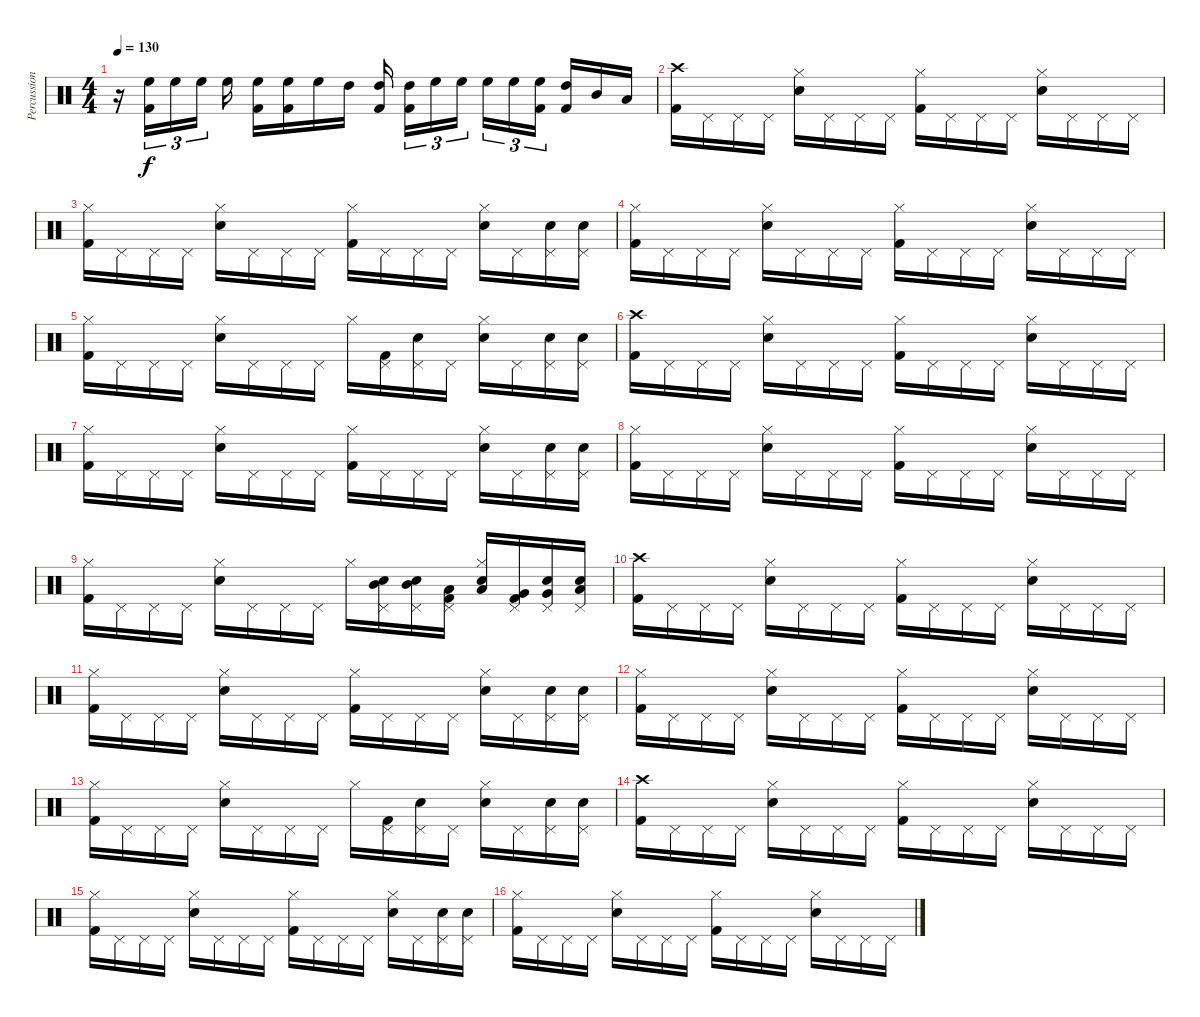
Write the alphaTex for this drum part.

\track ("Percussion" "Percussion") {instrument percussion}
\staff {score}
\articulation defaults
\ts (4 4)
\tempo 130
\clef neutral
\ks c
r.16{dy f} ("High Floor Tom (hit)" "Kick (hit) 2").16{tu (3 2)} "High Floor Tom (hit)".16{tu (3 2)} "High Floor Tom (hit)".16{tu (3 2) beam splitsecondary} "High Floor Tom (hit)".16 ("High Floor Tom (hit)" "Kick (hit) 2").16 ("High Floor Tom (hit)" "Kick (hit) 2").16 "High Floor Tom (hit)".16 "High Tom (hit)".16 ("High Tom (hit)" "Kick (hit) 2").16{beam splitsecondary} ("High Tom (hit)" "Kick (hit) 2").16{tu (3 2)} "High Floor Tom (hit)".16{tu (3 2)} "High Floor Tom (hit)".16{tu (3 2) beam splitsecondary} "High Floor Tom (hit)".16{tu (3 2)} "High Floor Tom (hit)".16{tu (3 2)} ("High Floor Tom (hit)" "Kick (hit) 2").16{tu (3 2) beam splitsecondary} ("High Tom (hit)" "Kick (hit) 2").16 "Mid Tom (hit)".16 "Low Tom (hit)".16 |
("Crash high (hit)" "Kick (hit) 2").16 "Pedal Hi-Hat (hit)".16 "Pedal Hi-Hat (hit)".16 "Pedal Hi-Hat (hit)".16 ("Hi-Hat (closed)" "Snare (hit) 2").16 "Pedal Hi-Hat (hit)".16 "Pedal Hi-Hat (hit)".16 "Pedal Hi-Hat (hit)".16 ("Hi-Hat (closed)" "Kick (hit) 2").16 "Pedal Hi-Hat (hit)".16 "Pedal Hi-Hat (hit)".16 "Pedal Hi-Hat (hit)".16 ("Hi-Hat (closed)" "Snare (hit) 2").16 "Pedal Hi-Hat (hit)".16 "Pedal Hi-Hat (hit)".16 "Pedal Hi-Hat (hit)".16 |
("Hi-Hat (closed)" "Kick (hit) 2").16 "Pedal Hi-Hat (hit)".16 "Pedal Hi-Hat (hit)".16 "Pedal Hi-Hat (hit)".16 ("Hi-Hat (closed)" "Snare (hit) 2").16 "Pedal Hi-Hat (hit)".16 "Pedal Hi-Hat (hit)".16 "Pedal Hi-Hat (hit)".16 ("Hi-Hat (closed)" "Kick (hit) 2").16 "Pedal Hi-Hat (hit)".16 "Pedal Hi-Hat (hit)".16 "Pedal Hi-Hat (hit)".16 ("Hi-Hat (closed)" "Snare (hit) 2").16 "Pedal Hi-Hat (hit)".16 ("Pedal Hi-Hat (hit)" "Snare (hit) 2").16 ("Pedal Hi-Hat (hit)" "Snare (hit) 2").16 |
("Hi-Hat (closed)" "Kick (hit) 2").16 "Pedal Hi-Hat (hit)".16 "Pedal Hi-Hat (hit)".16 "Pedal Hi-Hat (hit)".16 ("Hi-Hat (closed)" "Snare (hit) 2").16 "Pedal Hi-Hat (hit)".16 "Pedal Hi-Hat (hit)".16 "Pedal Hi-Hat (hit)".16 ("Hi-Hat (closed)" "Kick (hit) 2").16 "Pedal Hi-Hat (hit)".16 "Pedal Hi-Hat (hit)".16 "Pedal Hi-Hat (hit)".16 ("Hi-Hat (closed)" "Snare (hit) 2").16 "Pedal Hi-Hat (hit)".16 "Pedal Hi-Hat (hit)".16 "Pedal Hi-Hat (hit)".16 |
("Hi-Hat (closed)" "Kick (hit) 2").16 "Pedal Hi-Hat (hit)".16 "Pedal Hi-Hat (hit)".16 "Pedal Hi-Hat (hit)".16 ("Hi-Hat (closed)" "Snare (hit) 2").16 "Pedal Hi-Hat (hit)".16 "Pedal Hi-Hat (hit)".16 "Pedal Hi-Hat (hit)".16 "Hi-Hat (closed)".16 ("Pedal Hi-Hat (hit)" "Kick (hit) 2").16 ("Pedal Hi-Hat (hit)" "Snare (hit) 2").16 "Pedal Hi-Hat (hit)".16 ("Hi-Hat (closed)" "Snare (hit) 2").16 "Pedal Hi-Hat (hit)".16 ("Pedal Hi-Hat (hit)" "Snare (hit) 2").16 ("Pedal Hi-Hat (hit)" "Snare (hit) 2").16 |
("Crash high (hit)" "Kick (hit) 2").16 "Pedal Hi-Hat (hit)".16 "Pedal Hi-Hat (hit)".16 "Pedal Hi-Hat (hit)".16 ("Hi-Hat (closed)" "Snare (hit) 2").16 "Pedal Hi-Hat (hit)".16 "Pedal Hi-Hat (hit)".16 "Pedal Hi-Hat (hit)".16 ("Hi-Hat (closed)" "Kick (hit) 2").16 "Pedal Hi-Hat (hit)".16 "Pedal Hi-Hat (hit)".16 "Pedal Hi-Hat (hit)".16 ("Hi-Hat (closed)" "Snare (hit) 2").16 "Pedal Hi-Hat (hit)".16 "Pedal Hi-Hat (hit)".16 "Pedal Hi-Hat (hit)".16 |
("Hi-Hat (closed)" "Kick (hit) 2").16 "Pedal Hi-Hat (hit)".16 "Pedal Hi-Hat (hit)".16 "Pedal Hi-Hat (hit)".16 ("Hi-Hat (closed)" "Snare (hit) 2").16 "Pedal Hi-Hat (hit)".16 "Pedal Hi-Hat (hit)".16 "Pedal Hi-Hat (hit)".16 ("Hi-Hat (closed)" "Kick (hit) 2").16 "Pedal Hi-Hat (hit)".16 "Pedal Hi-Hat (hit)".16 "Pedal Hi-Hat (hit)".16 ("Hi-Hat (closed)" "Snare (hit) 2").16 "Pedal Hi-Hat (hit)".16 ("Pedal Hi-Hat (hit)" "Snare (hit) 2").16 ("Pedal Hi-Hat (hit)" "Snare (hit) 2").16 |
("Hi-Hat (closed)" "Kick (hit) 2").16 "Pedal Hi-Hat (hit)".16 "Pedal Hi-Hat (hit)".16 "Pedal Hi-Hat (hit)".16 ("Hi-Hat (closed)" "Snare (hit) 2").16 "Pedal Hi-Hat (hit)".16 "Pedal Hi-Hat (hit)".16 "Pedal Hi-Hat (hit)".16 ("Hi-Hat (closed)" "Kick (hit) 2").16 "Pedal Hi-Hat (hit)".16 "Pedal Hi-Hat (hit)".16 "Pedal Hi-Hat (hit)".16 ("Hi-Hat (closed)" "Snare (hit) 2").16 "Pedal Hi-Hat (hit)".16 "Pedal Hi-Hat (hit)".16 "Pedal Hi-Hat (hit)".16 |
("Hi-Hat (closed)" "Kick (hit) 2").16 "Pedal Hi-Hat (hit)".16 "Pedal Hi-Hat (hit)".16 "Pedal Hi-Hat (hit)".16 ("Hi-Hat (closed)" "Snare (hit) 2").16 "Pedal Hi-Hat (hit)".16 "Pedal Hi-Hat (hit)".16 "Pedal Hi-Hat (hit)".16 "Hi-Hat (closed)".16 ("Pedal Hi-Hat (hit)" "Mid Tom (hit)" "Snare (hit) 2").16 ("Pedal Hi-Hat (hit)" "Mid Tom (hit)" "Snare (hit) 2").16 ("Pedal Hi-Hat (hit)" "Low Tom (hit)" "Kick (hit) 2").16 ("Hi-Hat (closed)" "Low Tom (hit)" "Snare (hit) 2").16 ("Pedal Hi-Hat (hit)" "Very Low Tom (hit)" "Kick (hit) 2").16 ("Pedal Hi-Hat (hit)" "Very Low Tom (hit)" "Snare (hit) 2").16 ("Pedal Hi-Hat (hit)" "Low Floor Tom (hit)" "Snare (hit) 2").16 |
("Crash high (hit)" "Kick (hit) 2").16 "Pedal Hi-Hat (hit)".16 "Pedal Hi-Hat (hit)".16 "Pedal Hi-Hat (hit)".16 ("Hi-Hat (closed)" "Snare (hit) 2").16 "Pedal Hi-Hat (hit)".16 "Pedal Hi-Hat (hit)".16 "Pedal Hi-Hat (hit)".16 ("Hi-Hat (closed)" "Kick (hit) 2").16 "Pedal Hi-Hat (hit)".16 "Pedal Hi-Hat (hit)".16 "Pedal Hi-Hat (hit)".16 ("Hi-Hat (closed)" "Snare (hit) 2").16 "Pedal Hi-Hat (hit)".16 "Pedal Hi-Hat (hit)".16 "Pedal Hi-Hat (hit)".16 |
("Hi-Hat (closed)" "Kick (hit) 2").16 "Pedal Hi-Hat (hit)".16 "Pedal Hi-Hat (hit)".16 "Pedal Hi-Hat (hit)".16 ("Hi-Hat (closed)" "Snare (hit) 2").16 "Pedal Hi-Hat (hit)".16 "Pedal Hi-Hat (hit)".16 "Pedal Hi-Hat (hit)".16 ("Hi-Hat (closed)" "Kick (hit) 2").16 "Pedal Hi-Hat (hit)".16 "Pedal Hi-Hat (hit)".16 "Pedal Hi-Hat (hit)".16 ("Hi-Hat (closed)" "Snare (hit) 2").16 "Pedal Hi-Hat (hit)".16 ("Pedal Hi-Hat (hit)" "Snare (hit) 2").16 ("Pedal Hi-Hat (hit)" "Snare (hit) 2").16 |
("Hi-Hat (closed)" "Kick (hit) 2").16 "Pedal Hi-Hat (hit)".16 "Pedal Hi-Hat (hit)".16 "Pedal Hi-Hat (hit)".16 ("Hi-Hat (closed)" "Snare (hit) 2").16 "Pedal Hi-Hat (hit)".16 "Pedal Hi-Hat (hit)".16 "Pedal Hi-Hat (hit)".16 ("Hi-Hat (closed)" "Kick (hit) 2").16 "Pedal Hi-Hat (hit)".16 "Pedal Hi-Hat (hit)".16 "Pedal Hi-Hat (hit)".16 ("Hi-Hat (closed)" "Snare (hit) 2").16 "Pedal Hi-Hat (hit)".16 "Pedal Hi-Hat (hit)".16 "Pedal Hi-Hat (hit)".16 |
("Hi-Hat (closed)" "Kick (hit) 2").16 "Pedal Hi-Hat (hit)".16 "Pedal Hi-Hat (hit)".16 "Pedal Hi-Hat (hit)".16 ("Hi-Hat (closed)" "Snare (hit) 2").16 "Pedal Hi-Hat (hit)".16 "Pedal Hi-Hat (hit)".16 "Pedal Hi-Hat (hit)".16 "Hi-Hat (closed)".16 ("Pedal Hi-Hat (hit)" "Kick (hit) 2").16 ("Pedal Hi-Hat (hit)" "Snare (hit) 2").16 "Pedal Hi-Hat (hit)".16 ("Hi-Hat (closed)" "Snare (hit) 2").16 "Pedal Hi-Hat (hit)".16 ("Pedal Hi-Hat (hit)" "Snare (hit) 2").16 ("Pedal Hi-Hat (hit)" "Snare (hit) 2").16 |
("Crash high (hit)" "Kick (hit) 2").16 "Pedal Hi-Hat (hit)".16 "Pedal Hi-Hat (hit)".16 "Pedal Hi-Hat (hit)".16 ("Hi-Hat (closed)" "Snare (hit) 2").16 "Pedal Hi-Hat (hit)".16 "Pedal Hi-Hat (hit)".16 "Pedal Hi-Hat (hit)".16 ("Hi-Hat (closed)" "Kick (hit) 2").16 "Pedal Hi-Hat (hit)".16 "Pedal Hi-Hat (hit)".16 "Pedal Hi-Hat (hit)".16 ("Hi-Hat (closed)" "Snare (hit) 2").16 "Pedal Hi-Hat (hit)".16 "Pedal Hi-Hat (hit)".16 "Pedal Hi-Hat (hit)".16 |
("Hi-Hat (closed)" "Kick (hit) 2").16 "Pedal Hi-Hat (hit)".16 "Pedal Hi-Hat (hit)".16 "Pedal Hi-Hat (hit)".16 ("Hi-Hat (closed)" "Snare (hit) 2").16 "Pedal Hi-Hat (hit)".16 "Pedal Hi-Hat (hit)".16 "Pedal Hi-Hat (hit)".16 ("Hi-Hat (closed)" "Kick (hit) 2").16 "Pedal Hi-Hat (hit)".16 "Pedal Hi-Hat (hit)".16 "Pedal Hi-Hat (hit)".16 ("Hi-Hat (closed)" "Snare (hit) 2").16 "Pedal Hi-Hat (hit)".16 ("Pedal Hi-Hat (hit)" "Snare (hit) 2").16 ("Pedal Hi-Hat (hit)" "Snare (hit) 2").16 |
("Hi-Hat (closed)" "Kick (hit) 2").16 "Pedal Hi-Hat (hit)".16 "Pedal Hi-Hat (hit)".16 "Pedal Hi-Hat (hit)".16 ("Hi-Hat (closed)" "Snare (hit) 2").16 "Pedal Hi-Hat (hit)".16 "Pedal Hi-Hat (hit)".16 "Pedal Hi-Hat (hit)".16 ("Hi-Hat (closed)" "Kick (hit) 2").16 "Pedal Hi-Hat (hit)".16 "Pedal Hi-Hat (hit)".16 "Pedal Hi-Hat (hit)".16 ("Hi-Hat (closed)" "Snare (hit) 2").16 "Pedal Hi-Hat (hit)".16 "Pedal Hi-Hat (hit)".16 "Pedal Hi-Hat (hit)".16
